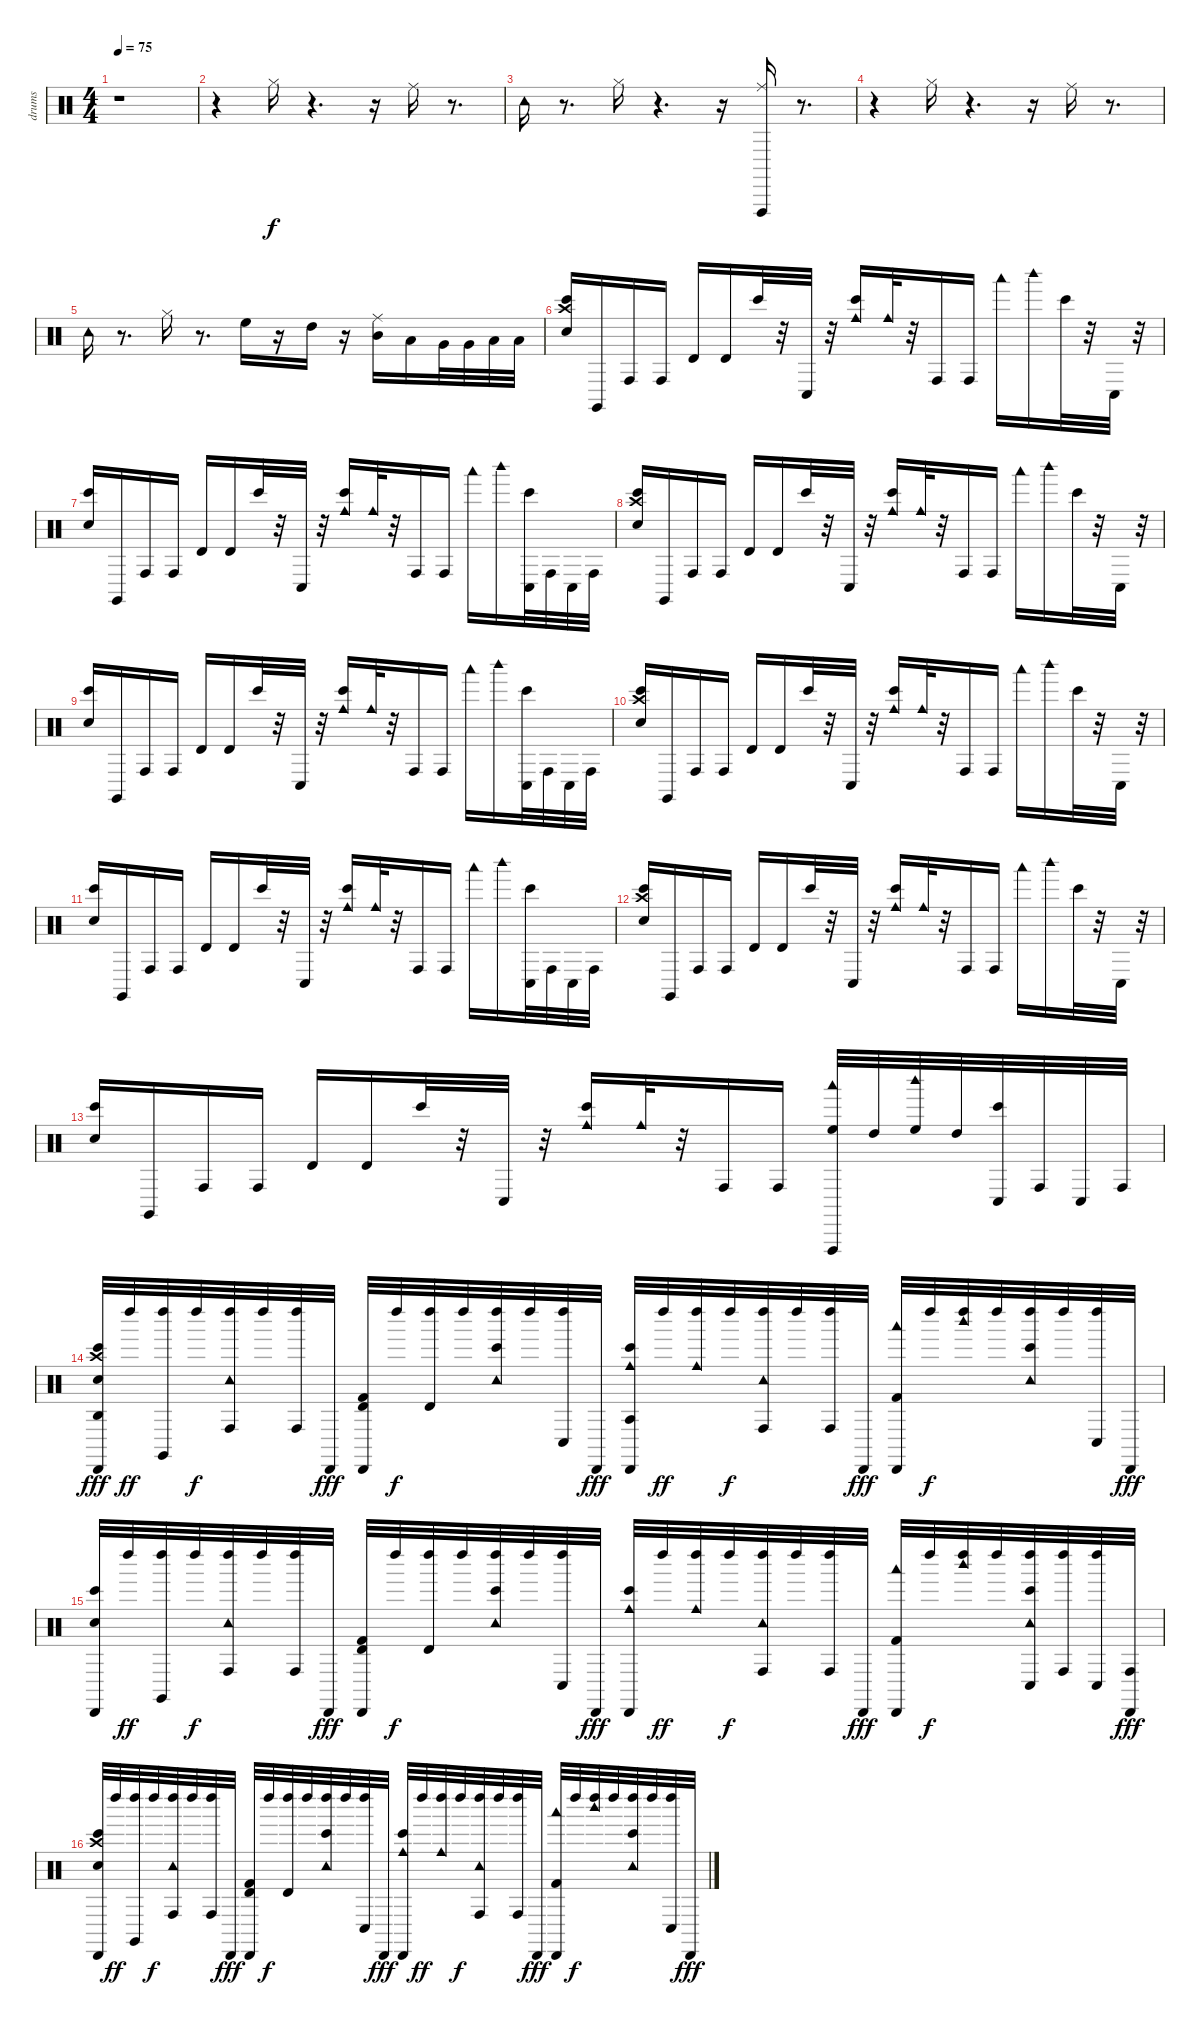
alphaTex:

\track ("drums" "drums") {instrument percussion}
\staff {score}
\articulation defaults
\ts (4 4)
\tempo 75
\clef neutral
\ks c
r.1{dy f} |
r.4 "Hi-Hat (closed)".16 r.4{d} r.16 "Ride (middle)".16 r.8{d} |
"Tambourine (hit)".16 r.8{d} "Hi-Hat (closed)".16 r.4{d} r.16 ("Ride (middle)" "Vibraslap (hit)").16 r.8{d} |
r.4 "Hi-Hat (closed)".16 r.4{d} r.16 "Ride (middle)".16 r.8{d} |
"Tambourine (hit)".16 r.8{d} "Hi-Hat (closed)".16 r.8{d} "High Floor Tom (hit)".16 r.16 "High Tom (hit)".16 r.16 ("Ride (middle)" "Mid Tom (hit)").16 "Low Tom (hit)".16 "Very Low Tom (hit)".32 "Very Low Tom (hit)".32 "Low Floor Tom (hit)".32 "Low Floor Tom (hit)".32 |
("Crash high (hit)" "Snare (hit) 2" "Bongo High (hit)").16 "Claves (hit)".16 "Conga high (hit)".16 "Conga high (hit)".16 "Timbale high (hit)".16 "Timbale high (hit)".16 "Bongo High (hit)".32 r.32 "Conga low (hit)".32 r.32 ("Bongo High (hit)" "Cowbell medium (hit)").16 "Cowbell medium (hit)".32 r.32 "Conga high (hit)".16 "Conga high (hit)".16 "Woodblock low (hit)".16 "Woodblock high (hit)".16 "Bongo High (hit)".32 r.32 "Conga low (hit)".32 r.32 |
("Snare (hit) 2" "Bongo High (hit)").16 "Claves (hit)".16 "Conga high (hit)".16 "Conga high (hit)".16 "Timbale high (hit)".16 "Timbale high (hit)".16 "Bongo High (hit)".32 r.32 "Conga low (hit)".32 r.32 ("Bongo High (hit)" "Cowbell medium (hit)").16 "Cowbell medium (hit)".32 r.32 "Conga high (hit)".16 "Conga high (hit)".16 "Woodblock low (hit)".16 "Woodblock high (hit)".16 ("Bongo High (hit)" "Conga low (hit)").32 "Conga high (hit)".32 "Conga low (hit)".32 "Conga high (hit)".32 |
("Crash high (hit)" "Snare (hit) 2" "Bongo High (hit)").16 "Claves (hit)".16 "Conga high (hit)".16 "Conga high (hit)".16 "Timbale high (hit)".16 "Timbale high (hit)".16 "Bongo High (hit)".32 r.32 "Conga low (hit)".32 r.32 ("Bongo High (hit)" "Cowbell medium (hit)").16 "Cowbell medium (hit)".32 r.32 "Conga high (hit)".16 "Conga high (hit)".16 "Woodblock low (hit)".16 "Woodblock high (hit)".16 "Bongo High (hit)".32 r.32 "Conga low (hit)".32 r.32 |
("Snare (hit) 2" "Bongo High (hit)").16 "Claves (hit)".16 "Conga high (hit)".16 "Conga high (hit)".16 "Timbale high (hit)".16 "Timbale high (hit)".16 "Bongo High (hit)".32 r.32 "Conga low (hit)".32 r.32 ("Bongo High (hit)" "Cowbell medium (hit)").16 "Cowbell medium (hit)".32 r.32 "Conga high (hit)".16 "Conga high (hit)".16 "Woodblock low (hit)".16 "Woodblock high (hit)".16 ("Bongo High (hit)" "Conga low (hit)").32 "Conga high (hit)".32 "Conga low (hit)".32 "Conga high (hit)".32 |
("Crash high (hit)" "Snare (hit) 2" "Bongo High (hit)").16 "Claves (hit)".16 "Conga high (hit)".16 "Conga high (hit)".16 "Timbale high (hit)".16 "Timbale high (hit)".16 "Bongo High (hit)".32 r.32 "Conga low (hit)".32 r.32 ("Bongo High (hit)" "Cowbell medium (hit)").16 "Cowbell medium (hit)".32 r.32 "Conga high (hit)".16 "Conga high (hit)".16 "Woodblock low (hit)".16 "Woodblock high (hit)".16 "Bongo High (hit)".32 r.32 "Conga low (hit)".32 r.32 |
("Snare (hit) 2" "Bongo High (hit)").16 "Claves (hit)".16 "Conga high (hit)".16 "Conga high (hit)".16 "Timbale high (hit)".16 "Timbale high (hit)".16 "Bongo High (hit)".32 r.32 "Conga low (hit)".32 r.32 ("Bongo High (hit)" "Cowbell medium (hit)").16 "Cowbell medium (hit)".32 r.32 "Conga high (hit)".16 "Conga high (hit)".16 "Woodblock low (hit)".16 "Woodblock high (hit)".16 ("Bongo High (hit)" "Conga low (hit)").32 "Conga high (hit)".32 "Conga low (hit)".32 "Conga high (hit)".32 |
("Crash high (hit)" "Snare (hit) 2" "Bongo High (hit)").16 "Claves (hit)".16 "Conga high (hit)".16 "Conga high (hit)".16 "Timbale high (hit)".16 "Timbale high (hit)".16 "Bongo High (hit)".32 r.32 "Conga low (hit)".32 r.32 ("Bongo High (hit)" "Cowbell medium (hit)").16 "Cowbell medium (hit)".32 r.32 "Conga high (hit)".16 "Conga high (hit)".16 "Woodblock low (hit)".16 "Woodblock high (hit)".16 "Bongo High (hit)".32 r.32 "Conga low (hit)".32 r.32 |
("Snare (hit) 2" "Bongo High (hit)").16 "Claves (hit)".16 "Conga high (hit)".16 "Conga high (hit)".16 "Timbale high (hit)".16 "Timbale high (hit)".16 "Bongo High (hit)".32 r.32 "Conga low (hit)".32 r.32 ("Bongo High (hit)" "Cowbell medium (hit)").16 "Cowbell medium (hit)".32 r.32 "Conga high (hit)".16 "Conga high (hit)".16 ("Woodblock low (hit)" "High Floor Tom (hit)" "Vibraslap (hit)").32 "High Tom (hit)".32 ("Woodblock high (hit)" "High Floor Tom (hit)").32 "High Tom (hit)".32 ("Conga low (hit)" "Bongo High (hit)").32 "Conga high (hit)".32 "Conga low (hit)".32 "Conga high (hit)".32 |
("Snare (hit) 2" "Crash high (hit)" "Bongo High (hit)" "Agogo high (hit)" "Cabasa (hit)").32{dy fff} "Left Maraca (hit)".32{dy ff} ("Claves (hit)" "Left Maraca (hit)").32 "Left Maraca (hit)".32{dy f} ("Conga high (hit)" "Tambourine (hit)" "Left Maraca (hit)").32 "Left Maraca (hit)".32 ("Conga high (hit)" "Left Maraca (hit)").32 "Cabasa (hit)".32{dy fff} ("Timbale high (hit)" "Kick (hit) 2" "Cabasa (hit)").32 "Left Maraca (hit)".32{dy f} ("Timbale high (hit)" "Left Maraca (hit)").32 "Left Maraca (hit)".32 ("Bongo High (hit)" "Tambourine (hit)" "Left Maraca (hit)").32 "Left Maraca (hit)".32 ("Conga low (hit)" "Left Maraca (hit)").32 "Cabasa (hit)".32{dy fff} ("Bongo High (hit)" "Cowbell medium (hit)" "Agogo tow (hit)" "Cabasa (hit)").32 "Left Maraca (hit)".32{dy ff} ("Cowbell medium (hit)" "Left Maraca (hit)").32 "Left Maraca (hit)".32{dy f} ("Conga high (hit)" "Tambourine (hit)" "Left Maraca (hit)").32 "Left Maraca (hit)".32 ("Conga high (hit)" "Left Maraca (hit)").32 "Cabasa (hit)".32{dy fff} ("Woodblock low (hit)" "Kick (hit) 2" "Cabasa (hit)").32 "Left Maraca (hit)".32{dy f} ("Woodblock high (hit)" "Left Maraca (hit)").32 "Left Maraca (hit)".32 ("Bongo High (hit)" "Tambourine (hit)" "Left Maraca (hit)").32 "Left Maraca (hit)".32 ("Conga low (hit)" "Left Maraca (hit)").32 "Cabasa (hit)".32{dy fff} |
("Snare (hit) 2" "Bongo High (hit)" "Cabasa (hit)").32 "Left Maraca (hit)".32{dy ff} ("Claves (hit)" "Left Maraca (hit)").32 "Left Maraca (hit)".32{dy f} ("Conga high (hit)" "Tambourine (hit)" "Left Maraca (hit)").32 "Left Maraca (hit)".32 ("Conga high (hit)" "Left Maraca (hit)").32 "Cabasa (hit)".32{dy fff} ("Timbale high (hit)" "Kick (hit) 2" "Cabasa (hit)").32 "Left Maraca (hit)".32{dy f} ("Timbale high (hit)" "Left Maraca (hit)").32 "Left Maraca (hit)".32 ("Bongo High (hit)" "Tambourine (hit)" "Left Maraca (hit)").32 "Left Maraca (hit)".32 ("Conga low (hit)" "Left Maraca (hit)").32 "Cabasa (hit)".32{dy fff} ("Bongo High (hit)" "Cowbell medium (hit)" "Cabasa (hit)").32 "Left Maraca (hit)".32{dy ff} ("Cowbell medium (hit)" "Left Maraca (hit)").32 "Left Maraca (hit)".32{dy f} ("Conga high (hit)" "Tambourine (hit)" "Left Maraca (hit)").32 "Left Maraca (hit)".32 ("Conga high (hit)" "Left Maraca (hit)").32 "Cabasa (hit)".32{dy fff} ("Woodblock low (hit)" "Kick (hit) 2" "Cabasa (hit)").32 "Left Maraca (hit)".32{dy f} ("Woodblock high (hit)" "Left Maraca (hit)").32 "Left Maraca (hit)".32 ("Bongo High (hit)" "Conga low (hit)" "Tambourine (hit)" "Left Maraca (hit)").32 ("Conga high (hit)" "Left Maraca (hit)").32 ("Conga low (hit)" "Left Maraca (hit)").32 ("Conga high (hit)" "Cabasa (hit)").32{dy fff} |
("Crash high (hit)" "Snare (hit) 2" "Bongo High (hit)" "Cabasa (hit)").32 "Left Maraca (hit)".32{dy ff} ("Claves (hit)" "Left Maraca (hit)").32 "Left Maraca (hit)".32{dy f} ("Conga high (hit)" "Tambourine (hit)" "Left Maraca (hit)").32 "Left Maraca (hit)".32 ("Conga high (hit)" "Left Maraca (hit)").32 "Cabasa (hit)".32{dy fff} ("Timbale high (hit)" "Kick (hit) 2" "Cabasa (hit)").32 "Left Maraca (hit)".32{dy f} ("Timbale high (hit)" "Left Maraca (hit)").32 "Left Maraca (hit)".32 ("Bongo High (hit)" "Tambourine (hit)" "Left Maraca (hit)").32 "Left Maraca (hit)".32 ("Conga low (hit)" "Left Maraca (hit)").32 "Cabasa (hit)".32{dy fff} ("Bongo High (hit)" "Cowbell medium (hit)" "Cabasa (hit)").32 "Left Maraca (hit)".32{dy ff} ("Cowbell medium (hit)" "Left Maraca (hit)").32 "Left Maraca (hit)".32{dy f} ("Conga high (hit)" "Tambourine (hit)" "Left Maraca (hit)").32 "Left Maraca (hit)".32 ("Conga high (hit)" "Left Maraca (hit)").32 "Cabasa (hit)".32{dy fff} ("Woodblock low (hit)" "Kick (hit) 2" "Cabasa (hit)").32 "Left Maraca (hit)".32{dy f} ("Woodblock high (hit)" "Left Maraca (hit)").32 "Left Maraca (hit)".32 ("Bongo High (hit)" "Tambourine (hit)" "Left Maraca (hit)").32 "Left Maraca (hit)".32 ("Conga low (hit)" "Left Maraca (hit)").32 "Cabasa (hit)".32{dy fff}
